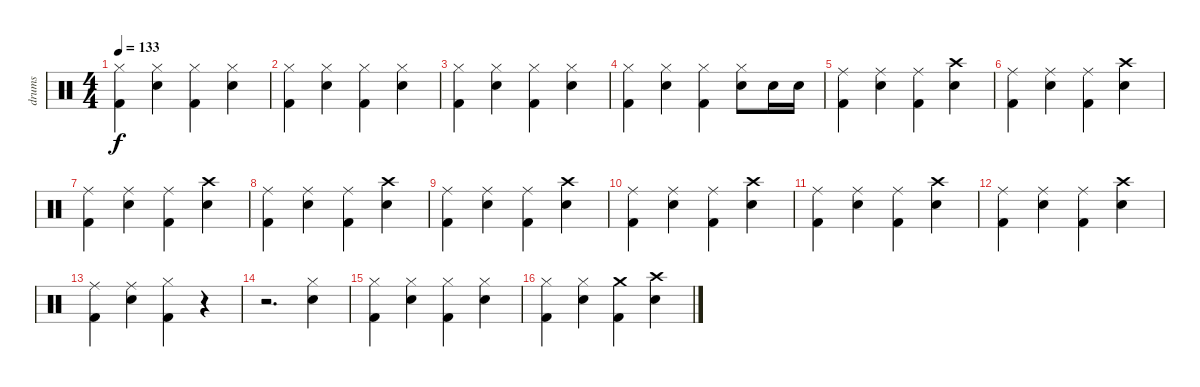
\track ("drums" "drums") {instrument percussion}
\staff {score}
\articulation defaults
\ts (4 4)
\tempo 133
\clef neutral
\ks c
("Hi-Hat (closed)" "Kick (hit) 2").4{dy f} ("Hi-Hat (closed)" "Snare (hit) 2").4 ("Hi-Hat (closed)" "Kick (hit) 2").4 ("Hi-Hat (closed)" "Snare (hit) 2").4 |
("Hi-Hat (closed)" "Kick (hit) 2").4 ("Hi-Hat (closed)" "Snare (hit) 2").4 ("Hi-Hat (closed)" "Kick (hit) 2").4 ("Hi-Hat (closed)" "Snare (hit) 2").4 |
("Hi-Hat (closed)" "Kick (hit) 2").4 ("Hi-Hat (closed)" "Snare (hit) 2").4 ("Hi-Hat (closed)" "Kick (hit) 2").4 ("Hi-Hat (closed)" "Snare (hit) 2").4 |
("Hi-Hat (closed)" "Kick (hit) 2").4 ("Hi-Hat (closed)" "Snare (hit) 2").4 ("Hi-Hat (closed)" "Kick (hit) 2").4 ("Hi-Hat (closed)" "Snare (hit) 2").8 "Snare (hit) 2".16 "Snare (hit) 2".16 |
("Ride (middle)" "Kick (hit) 2").4 ("Ride (middle)" "Snare (hit) 2").4 ("Ride (middle)" "Kick (hit) 2").4 ("Crash high (hit)" "Snare (hit) 2").4 |
("Ride (middle)" "Kick (hit) 2").4 ("Ride (middle)" "Snare (hit) 2").4 ("Ride (middle)" "Kick (hit) 2").4 ("Crash high (hit)" "Snare (hit) 2").4 |
("Ride (middle)" "Kick (hit) 2").4 ("Ride (middle)" "Snare (hit) 2").4 ("Ride (middle)" "Kick (hit) 2").4 ("Crash high (hit)" "Snare (hit) 2").4 |
("Ride (middle)" "Kick (hit) 2").4 ("Ride (middle)" "Snare (hit) 2").4 ("Ride (middle)" "Kick (hit) 2").4 ("Crash high (hit)" "Snare (hit) 2").4 |
("Ride (middle)" "Kick (hit) 2").4 ("Ride (middle)" "Snare (hit) 2").4 ("Ride (middle)" "Kick (hit) 2").4 ("Crash high (hit)" "Snare (hit) 2").4 |
("Ride (middle)" "Kick (hit) 2").4 ("Ride (middle)" "Snare (hit) 2").4 ("Ride (middle)" "Kick (hit) 2").4 ("Crash high (hit)" "Snare (hit) 2").4 |
("Ride (middle)" "Kick (hit) 2").4 ("Ride (middle)" "Snare (hit) 2").4 ("Ride (middle)" "Kick (hit) 2").4 ("Crash high (hit)" "Snare (hit) 2").4 |
("Ride (middle)" "Kick (hit) 2").4 ("Ride (middle)" "Snare (hit) 2").4 ("Ride (middle)" "Kick (hit) 2").4 ("Crash high (hit)" "Snare (hit) 2").4 |
("Ride (middle)" "Kick (hit) 2").4 ("Ride (middle)" "Snare (hit) 2").4 ("Hi-Hat (closed)" "Kick (hit) 2").4 r.4 |
r.2{d} ("Hi-Hat (closed)" "Snare (hit) 2").4 |
("Hi-Hat (closed)" "Kick (hit) 2").4 ("Hi-Hat (closed)" "Snare (hit) 2").4 ("Hi-Hat (closed)" "Kick (hit) 2").4 ("Hi-Hat (closed)" "Snare (hit) 2").4 |
("Hi-Hat (closed)" "Kick (hit) 2").4 ("Hi-Hat (closed)" "Snare (hit) 2").4 ("Crash medium (hit)" "Kick (hit) 2").4 ("Crash high (hit)" "Snare (hit) 2").4
